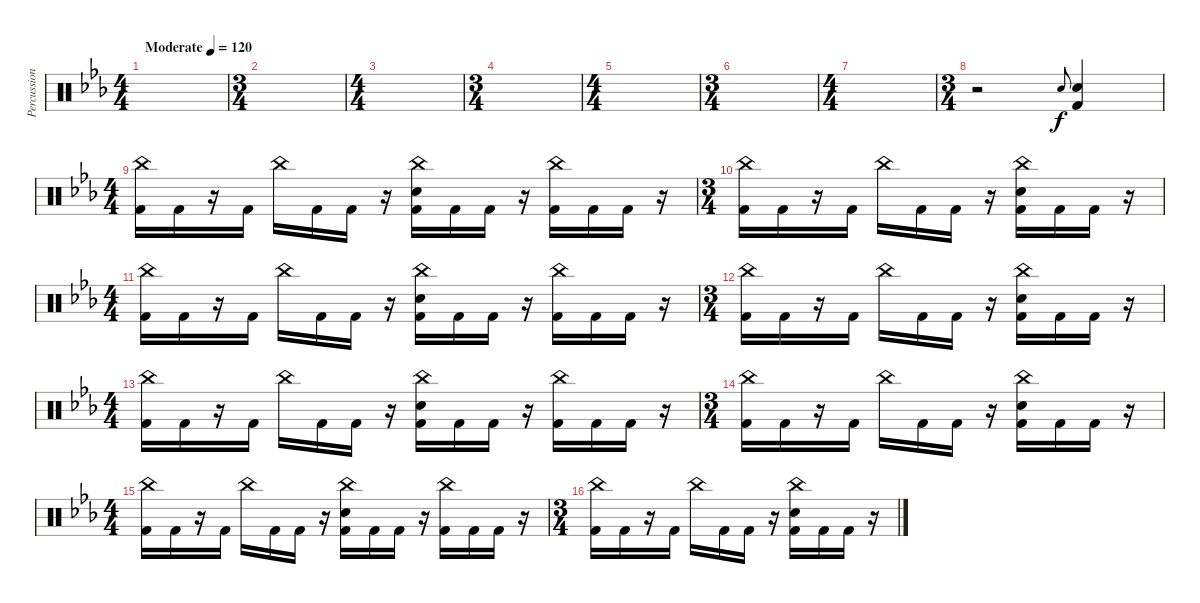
\track ("Percussion" "Percussion") {instrument percussion}
\staff {score}
\articulation defaults
\ts (4 4)
\tempo (120 "Moderate")
\clef neutral
\ks eb
|
\ts (3 4)
|
\ts (4 4)
|
\ts (3 4)
|
\ts (4 4)
|
\ts (3 4)
|
\ts (4 4)
|
\ts (3 4)
r.2 "Electric Snare (hit)".8{gr onbeat} ("Electric Snare (hit)" "Kick (hit) 2").4 |
\ts (4 4)
("China (hit)" "Kick (hit) 2").16 "Kick (hit) 2".16 r.16 "Kick (hit) 2".16 "China (hit)".16 "Kick (hit) 2".16 "Kick (hit) 2".16 r.16 ("China (hit)" "Electric Snare (hit)" "Kick (hit) 2").16 "Kick (hit) 2".16 "Kick (hit) 2".16 r.16 ("China (hit)" "Kick (hit) 2").16 "Kick (hit) 2".16 "Kick (hit) 2".16 r.16 |
\ts (3 4)
("China (hit)" "Kick (hit) 2").16 "Kick (hit) 2".16 r.16 "Kick (hit) 2".16 "China (hit)".16 "Kick (hit) 2".16 "Kick (hit) 2".16 r.16 ("China (hit)" "Electric Snare (hit)" "Kick (hit) 2").16 "Kick (hit) 2".16 "Kick (hit) 2".16 r.16 |
\ts (4 4)
("China (hit)" "Kick (hit) 2").16 "Kick (hit) 2".16 r.16 "Kick (hit) 2".16 "China (hit)".16 "Kick (hit) 2".16 "Kick (hit) 2".16 r.16 ("China (hit)" "Electric Snare (hit)" "Kick (hit) 2").16 "Kick (hit) 2".16 "Kick (hit) 2".16 r.16 ("China (hit)" "Kick (hit) 2").16 "Kick (hit) 2".16 "Kick (hit) 2".16 r.16 |
\ts (3 4)
("China (hit)" "Kick (hit) 2").16 "Kick (hit) 2".16 r.16 "Kick (hit) 2".16 "China (hit)".16 "Kick (hit) 2".16 "Kick (hit) 2".16 r.16 ("China (hit)" "Electric Snare (hit)" "Kick (hit) 2").16 "Kick (hit) 2".16 "Kick (hit) 2".16 r.16 |
\ts (4 4)
("China (hit)" "Kick (hit) 2").16 "Kick (hit) 2".16 r.16 "Kick (hit) 2".16 "China (hit)".16 "Kick (hit) 2".16 "Kick (hit) 2".16 r.16 ("China (hit)" "Electric Snare (hit)" "Kick (hit) 2").16 "Kick (hit) 2".16 "Kick (hit) 2".16 r.16 ("China (hit)" "Kick (hit) 2").16 "Kick (hit) 2".16 "Kick (hit) 2".16 r.16 |
\ts (3 4)
("China (hit)" "Kick (hit) 2").16 "Kick (hit) 2".16 r.16 "Kick (hit) 2".16 "China (hit)".16 "Kick (hit) 2".16 "Kick (hit) 2".16 r.16 ("China (hit)" "Electric Snare (hit)" "Kick (hit) 2").16 "Kick (hit) 2".16 "Kick (hit) 2".16 r.16 |
\ts (4 4)
("China (hit)" "Kick (hit) 2").16 "Kick (hit) 2".16 r.16 "Kick (hit) 2".16 "China (hit)".16 "Kick (hit) 2".16 "Kick (hit) 2".16 r.16 ("China (hit)" "Electric Snare (hit)" "Kick (hit) 2").16 "Kick (hit) 2".16 "Kick (hit) 2".16 r.16 ("China (hit)" "Kick (hit) 2").16 "Kick (hit) 2".16 "Kick (hit) 2".16 r.16 |
\ts (3 4)
("China (hit)" "Kick (hit) 2").16 "Kick (hit) 2".16 r.16 "Kick (hit) 2".16 "China (hit)".16 "Kick (hit) 2".16 "Kick (hit) 2".16 r.16 ("China (hit)" "Electric Snare (hit)" "Kick (hit) 2").16 "Kick (hit) 2".16 "Kick (hit) 2".16 r.16
